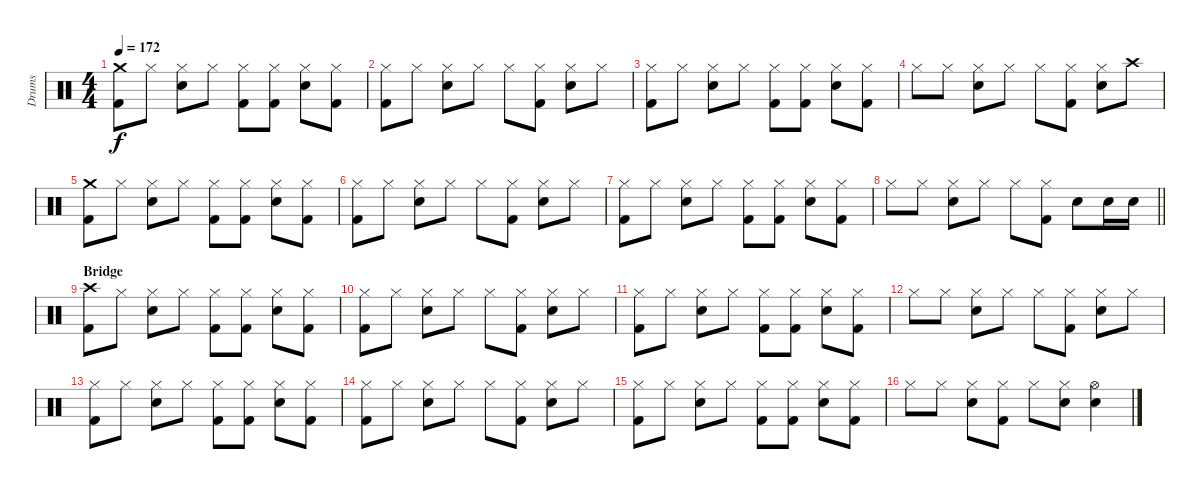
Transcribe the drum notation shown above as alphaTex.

\track ("Drums" "Drums") {instrument percussion}
\staff {score}
\articulation defaults
\ts (4 4)
\tempo 172
\clef neutral
\ks c
("Crash medium (hit)" "Kick (hit) 2").8{dy f} "Hi-Hat (closed)".8 ("Hi-Hat (closed)" "Electric Snare (hit)").8 "Hi-Hat (closed)".8 ("Hi-Hat (closed)" "Kick (hit) 2").8 ("Hi-Hat (closed)" "Kick (hit) 2").8 ("Hi-Hat (closed)" "Electric Snare (hit)").8 ("Hi-Hat (closed)" "Kick (hit) 2").8 |
("Hi-Hat (closed)" "Kick (hit) 2").8 "Hi-Hat (closed)".8 ("Hi-Hat (closed)" "Electric Snare (hit)").8 "Hi-Hat (closed)".8 "Hi-Hat (closed)".8 ("Hi-Hat (closed)" "Kick (hit) 2").8 ("Hi-Hat (closed)" "Electric Snare (hit)").8 "Hi-Hat (closed)".8 |
("Hi-Hat (closed)" "Kick (hit) 2").8 "Hi-Hat (closed)".8 ("Hi-Hat (closed)" "Electric Snare (hit)").8 "Hi-Hat (closed)".8 ("Hi-Hat (closed)" "Kick (hit) 2").8 ("Hi-Hat (closed)" "Kick (hit) 2").8 ("Hi-Hat (closed)" "Electric Snare (hit)").8 ("Hi-Hat (closed)" "Kick (hit) 2").8 |
"Hi-Hat (closed)".8 "Hi-Hat (closed)".8 ("Hi-Hat (closed)" "Electric Snare (hit)").8 "Hi-Hat (closed)".8 "Hi-Hat (closed)".8 ("Hi-Hat (closed)" "Kick (hit) 2").8 ("Hi-Hat (closed)" "Electric Snare (hit)").8 "Crash high (hit)".8 |
("Crash medium (hit)" "Kick (hit) 2").8 "Hi-Hat (closed)".8 ("Hi-Hat (closed)" "Electric Snare (hit)").8 "Hi-Hat (closed)".8 ("Hi-Hat (closed)" "Kick (hit) 2").8 ("Hi-Hat (closed)" "Kick (hit) 2").8 ("Hi-Hat (closed)" "Electric Snare (hit)").8 ("Hi-Hat (closed)" "Kick (hit) 2").8 |
("Hi-Hat (closed)" "Kick (hit) 2").8 "Hi-Hat (closed)".8 ("Hi-Hat (closed)" "Electric Snare (hit)").8 "Hi-Hat (closed)".8 "Hi-Hat (closed)".8 ("Hi-Hat (closed)" "Kick (hit) 2").8 ("Hi-Hat (closed)" "Electric Snare (hit)").8 "Hi-Hat (closed)".8 |
("Hi-Hat (closed)" "Kick (hit) 2").8 "Hi-Hat (closed)".8 ("Hi-Hat (closed)" "Electric Snare (hit)").8 "Hi-Hat (closed)".8 ("Hi-Hat (closed)" "Kick (hit) 2").8 ("Hi-Hat (closed)" "Kick (hit) 2").8 ("Hi-Hat (closed)" "Electric Snare (hit)").8 ("Hi-Hat (closed)" "Kick (hit) 2").8 |
\barLineRight lightlight "Hi-Hat (closed)".8 "Hi-Hat (closed)".8
("Hi-Hat (closed)" "Electric Snare (hit)").8 "Hi-Hat (closed)".8 "Hi-Hat (closed)".8 ("Hi-Hat (closed)" "Kick (hit) 2").8 "Electric Snare (hit)".8 "Electric Snare (hit)".16 "Electric Snare (hit)".16 |
\section ("" "Bridge")
("Crash high (hit)" "Kick (hit) 2").8 "Hi-Hat (closed)".8 ("Hi-Hat (closed)" "Electric Snare (hit)").8 "Hi-Hat (closed)".8 ("Hi-Hat (closed)" "Kick (hit) 2").8 ("Hi-Hat (closed)" "Kick (hit) 2").8 ("Hi-Hat (closed)" "Electric Snare (hit)").8 ("Hi-Hat (closed)" "Kick (hit) 2").8 |
("Hi-Hat (closed)" "Kick (hit) 2").8 "Hi-Hat (closed)".8 ("Hi-Hat (closed)" "Electric Snare (hit)").8 "Hi-Hat (closed)".8 "Hi-Hat (closed)".8 ("Hi-Hat (closed)" "Kick (hit) 2").8 ("Hi-Hat (closed)" "Electric Snare (hit)").8 "Hi-Hat (closed)".8 |
("Hi-Hat (closed)" "Kick (hit) 2").8 "Hi-Hat (closed)".8 ("Hi-Hat (closed)" "Electric Snare (hit)").8 "Hi-Hat (closed)".8 ("Hi-Hat (closed)" "Kick (hit) 2").8 ("Hi-Hat (closed)" "Kick (hit) 2").8 ("Hi-Hat (closed)" "Electric Snare (hit)").8 ("Hi-Hat (closed)" "Kick (hit) 2").8 |
"Hi-Hat (closed)".8 "Hi-Hat (closed)".8 ("Hi-Hat (closed)" "Electric Snare (hit)").8 "Hi-Hat (closed)".8 "Hi-Hat (closed)".8 ("Hi-Hat (closed)" "Kick (hit) 2").8 ("Hi-Hat (closed)" "Electric Snare (hit)").8 "Hi-Hat (closed)".8 |
("Hi-Hat (closed)" "Kick (hit) 2").8 "Hi-Hat (closed)".8 ("Hi-Hat (closed)" "Electric Snare (hit)").8 "Hi-Hat (closed)".8 ("Hi-Hat (closed)" "Kick (hit) 2").8 ("Hi-Hat (closed)" "Kick (hit) 2").8 ("Hi-Hat (closed)" "Electric Snare (hit)").8 ("Hi-Hat (closed)" "Kick (hit) 2").8 |
("Hi-Hat (closed)" "Kick (hit) 2").8 "Hi-Hat (closed)".8 ("Hi-Hat (closed)" "Electric Snare (hit)").8 "Hi-Hat (closed)".8 "Hi-Hat (closed)".8 ("Hi-Hat (closed)" "Kick (hit) 2").8 ("Hi-Hat (closed)" "Electric Snare (hit)").8 "Hi-Hat (closed)".8 |
("Hi-Hat (closed)" "Kick (hit) 2").8 "Hi-Hat (closed)".8 ("Hi-Hat (closed)" "Electric Snare (hit)").8 "Hi-Hat (closed)".8 ("Hi-Hat (closed)" "Kick (hit) 2").8 ("Hi-Hat (closed)" "Kick (hit) 2").8 ("Hi-Hat (closed)" "Electric Snare (hit)").8 ("Hi-Hat (closed)" "Kick (hit) 2").8 |
"Hi-Hat (closed)".8 "Hi-Hat (closed)".8 ("Hi-Hat (closed)" "Electric Snare (hit)").8 ("Hi-Hat (closed)" "Kick (hit) 2").8 "Hi-Hat (closed)".8 ("Hi-Hat (closed)" "Electric Snare (hit)").8 ("Hi-Hat (open)" "Electric Snare (hit)").4
